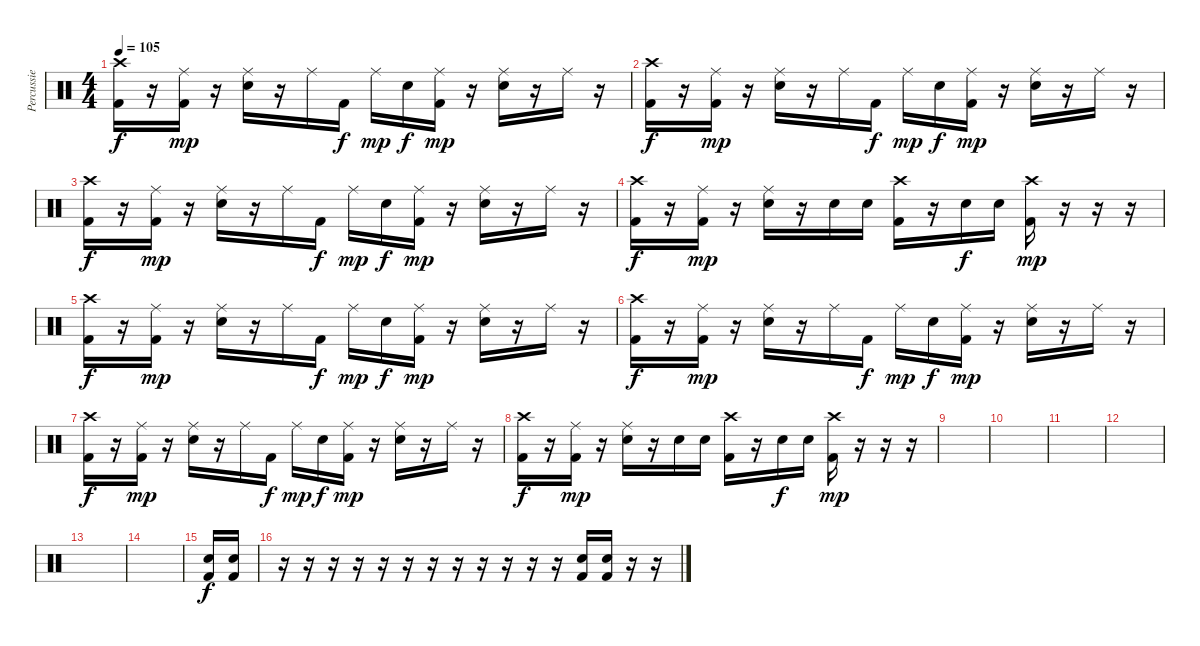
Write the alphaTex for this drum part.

\track ("Percussie" "Percussie") {instrument percussion}
\staff {score}
\articulation defaults
\ts (4 4)
\tempo 105
\clef neutral
\ks c
("Crash high (hit)" "Kick (hit) 2").16{dy f} r.16 ("Ride (middle)" "Kick (hit) 2").16{dy mp} r.16 ("Ride (middle)" "Electric Snare (hit)").16 r.16 "Ride (middle)".16 "Kick (hit) 2".16{dy f} "Ride (middle)".16{dy mp} "Electric Snare (hit)".16{dy f} ("Ride (middle)" "Kick (hit) 2").16{dy mp} r.16 ("Ride (middle)" "Electric Snare (hit)").16 r.16 "Ride (middle)".16 r.16 |
("Crash high (hit)" "Kick (hit) 2").16{dy f} r.16 ("Ride (middle)" "Kick (hit) 2").16{dy mp} r.16 ("Ride (middle)" "Electric Snare (hit)").16 r.16 "Ride (middle)".16 "Kick (hit) 2".16{dy f} "Ride (middle)".16{dy mp} "Electric Snare (hit)".16{dy f} ("Ride (middle)" "Kick (hit) 2").16{dy mp} r.16 ("Ride (middle)" "Electric Snare (hit)").16 r.16 "Ride (middle)".16 r.16 |
("Crash high (hit)" "Kick (hit) 2").16{dy f} r.16 ("Ride (middle)" "Kick (hit) 2").16{dy mp} r.16 ("Ride (middle)" "Electric Snare (hit)").16 r.16 "Ride (middle)".16 "Kick (hit) 2".16{dy f} "Ride (middle)".16{dy mp} "Electric Snare (hit)".16{dy f} ("Ride (middle)" "Kick (hit) 2").16{dy mp} r.16 ("Ride (middle)" "Electric Snare (hit)").16 r.16 "Ride (middle)".16 r.16 |
("Crash high (hit)" "Kick (hit) 2").16{dy f} r.16 ("Ride (middle)" "Kick (hit) 2").16{dy mp} r.16 ("Ride (middle)" "Electric Snare (hit)").16 r.16 "Electric Snare (hit)".16 "Electric Snare (hit)".16 ("Crash high (hit)" "Kick (hit) 2").16 r.16 "Electric Snare (hit)".16{dy f} "Electric Snare (hit)".16 ("Crash high (hit)" "Kick (hit) 2").16{dy mp} r.16 r.16 r.16 |
("Crash high (hit)" "Kick (hit) 2").16{dy f} r.16 ("Ride (middle)" "Kick (hit) 2").16{dy mp} r.16 ("Ride (middle)" "Electric Snare (hit)").16 r.16 "Ride (middle)".16 "Kick (hit) 2".16{dy f} "Ride (middle)".16{dy mp} "Electric Snare (hit)".16{dy f} ("Ride (middle)" "Kick (hit) 2").16{dy mp} r.16 ("Ride (middle)" "Electric Snare (hit)").16 r.16 "Ride (middle)".16 r.16 |
("Crash high (hit)" "Kick (hit) 2").16{dy f} r.16 ("Ride (middle)" "Kick (hit) 2").16{dy mp} r.16 ("Ride (middle)" "Electric Snare (hit)").16 r.16 "Ride (middle)".16 "Kick (hit) 2".16{dy f} "Ride (middle)".16{dy mp} "Electric Snare (hit)".16{dy f} ("Ride (middle)" "Kick (hit) 2").16{dy mp} r.16 ("Ride (middle)" "Electric Snare (hit)").16 r.16 "Ride (middle)".16 r.16 |
("Crash high (hit)" "Kick (hit) 2").16{dy f} r.16 ("Ride (middle)" "Kick (hit) 2").16{dy mp} r.16 ("Ride (middle)" "Electric Snare (hit)").16 r.16 "Ride (middle)".16 "Kick (hit) 2".16{dy f} "Ride (middle)".16{dy mp} "Electric Snare (hit)".16{dy f} ("Ride (middle)" "Kick (hit) 2").16{dy mp} r.16 ("Ride (middle)" "Electric Snare (hit)").16 r.16 "Ride (middle)".16 r.16 |
("Crash high (hit)" "Kick (hit) 2").16{dy f} r.16 ("Ride (middle)" "Kick (hit) 2").16{dy mp} r.16 ("Ride (middle)" "Electric Snare (hit)").16 r.16 "Electric Snare (hit)".16 "Electric Snare (hit)".16 ("Crash high (hit)" "Kick (hit) 2").16 r.16 "Electric Snare (hit)".16{dy f} "Electric Snare (hit)".16 ("Crash high (hit)" "Kick (hit) 2").16{dy mp} r.16 r.16 r.16 |
|
|
|
|
|
|
("Electric Snare (hit)" "Kick (hit) 2").16{dy f} ("Electric Snare (hit)" "Kick (hit) 2").16 |
r.16 r.16 r.16 r.16 r.16 r.16 r.16 r.16 r.16 r.16 r.16 r.16 ("Electric Snare (hit)" "Kick (hit) 2").16 ("Electric Snare (hit)" "Kick (hit) 2").16 r.16 r.16
